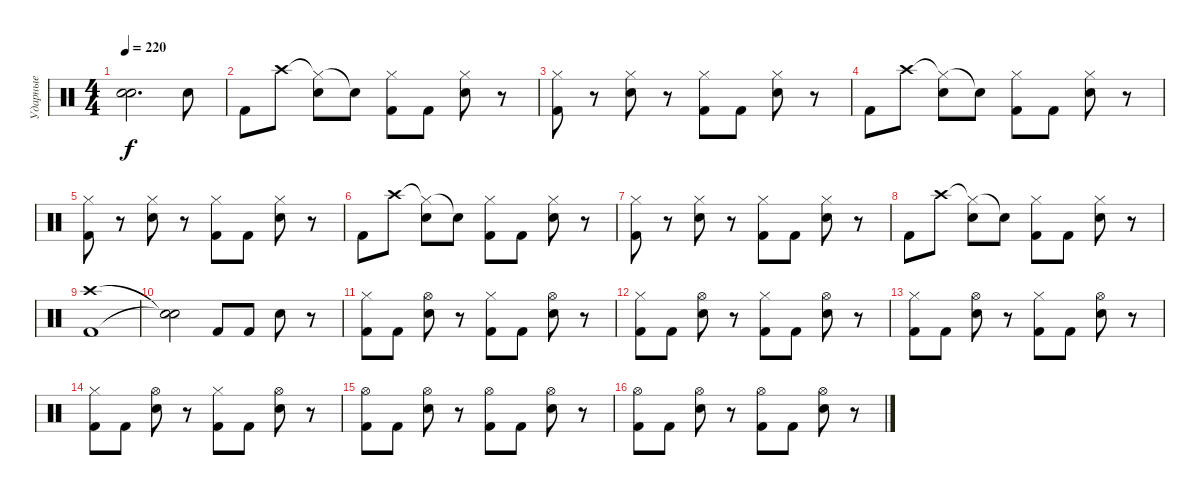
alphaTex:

\track ("Ударные" "Ударные") {instrument percussion}
\staff {score}
\articulation defaults
\ts (4 4)
\tempo 220
\clef neutral
\ks c
("Snare (hit)"{t} "Snare (hit)"{t}).2{d dy f} "Electric Snare (hit)".8 |
"Kick (hit) 2".8 "Crash high (hit)".8 ("Hi-Hat (closed)"{t} "Electric Snare (hit)").8 "Snare (hit)"{t}.8 ("Hi-Hat (closed)" "Kick (hit) 2").8 "Kick (hit) 2".8 ("Hi-Hat (closed)" "Electric Snare (hit)").8 r.8 |
("Hi-Hat (closed)" "Kick (hit) 2").8 r.8 ("Hi-Hat (closed)" "Electric Snare (hit)").8 r.8 ("Hi-Hat (closed)" "Kick (hit) 2").8 "Kick (hit) 2".8 ("Hi-Hat (closed)" "Electric Snare (hit)").8 r.8 |
"Kick (hit) 2".8 "Crash high (hit)".8 ("Hi-Hat (closed)"{t} "Electric Snare (hit)").8 "Snare (hit)"{t}.8 ("Hi-Hat (closed)" "Kick (hit) 2").8 "Kick (hit) 2".8 ("Hi-Hat (closed)" "Electric Snare (hit)").8 r.8 |
("Hi-Hat (closed)" "Kick (hit) 2").8 r.8 ("Hi-Hat (closed)" "Electric Snare (hit)").8 r.8 ("Hi-Hat (closed)" "Kick (hit) 2").8 "Kick (hit) 2".8 ("Hi-Hat (closed)" "Electric Snare (hit)").8 r.8 |
"Kick (hit) 2".8 "Crash high (hit)".8 ("Hi-Hat (closed)"{t} "Electric Snare (hit)").8 "Snare (hit)"{t}.8 ("Hi-Hat (closed)" "Kick (hit) 2").8 "Kick (hit) 2".8 ("Hi-Hat (closed)" "Electric Snare (hit)").8 r.8 |
("Hi-Hat (closed)" "Kick (hit) 2").8 r.8 ("Hi-Hat (closed)" "Electric Snare (hit)").8 r.8 ("Hi-Hat (closed)" "Kick (hit) 2").8 "Kick (hit) 2".8 ("Hi-Hat (closed)" "Electric Snare (hit)").8 r.8 |
"Kick (hit) 2".8 "Crash high (hit)".8 ("Hi-Hat (closed)"{t} "Electric Snare (hit)").8 "Snare (hit)"{t}.8 ("Hi-Hat (closed)" "Kick (hit) 2").8 "Kick (hit) 2".8 ("Hi-Hat (closed)" "Electric Snare (hit)").8 r.8 |
("Crash high (hit)" "Kick (hit) 2").1 |
("Snare (hit)"{t} "Snare (hit)"{t}).2 "Kick (hit) 2".8 "Kick (hit) 2".8 "Electric Snare (hit)".8 r.8 |
("Hi-Hat (closed)" "Kick (hit) 2").8 "Kick (hit) 2".8 ("Hi-Hat (open)" "Electric Snare (hit)").8 r.8 ("Hi-Hat (closed)" "Kick (hit) 2").8 "Kick (hit) 2".8 ("Hi-Hat (open)" "Electric Snare (hit)").8 r.8 |
("Hi-Hat (closed)" "Kick (hit) 2").8 "Kick (hit) 2".8 ("Hi-Hat (open)" "Electric Snare (hit)").8 r.8 ("Hi-Hat (closed)" "Kick (hit) 2").8 "Kick (hit) 2".8 ("Hi-Hat (open)" "Electric Snare (hit)").8 r.8 |
("Hi-Hat (closed)" "Kick (hit) 2").8 "Kick (hit) 2".8 ("Hi-Hat (open)" "Electric Snare (hit)").8 r.8 ("Hi-Hat (closed)" "Kick (hit) 2").8 "Kick (hit) 2".8 ("Hi-Hat (open)" "Electric Snare (hit)").8 r.8 |
("Hi-Hat (closed)" "Kick (hit) 2").8 "Kick (hit) 2".8 ("Hi-Hat (open)" "Electric Snare (hit)").8 r.8 ("Hi-Hat (closed)" "Kick (hit) 2").8 "Kick (hit) 2".8 ("Hi-Hat (open)" "Electric Snare (hit)").8 r.8 |
("Hi-Hat (open)" "Kick (hit) 2").8 "Kick (hit) 2".8 ("Hi-Hat (open)" "Electric Snare (hit)").8 r.8 ("Hi-Hat (open)" "Kick (hit) 2").8 "Kick (hit) 2".8 ("Hi-Hat (open)" "Electric Snare (hit)").8 r.8 |
("Hi-Hat (open)" "Kick (hit) 2").8 "Kick (hit) 2".8 ("Hi-Hat (open)" "Electric Snare (hit)").8 r.8 ("Hi-Hat (open)" "Kick (hit) 2").8 "Kick (hit) 2".8 ("Hi-Hat (open)" "Electric Snare (hit)").8 r.8
